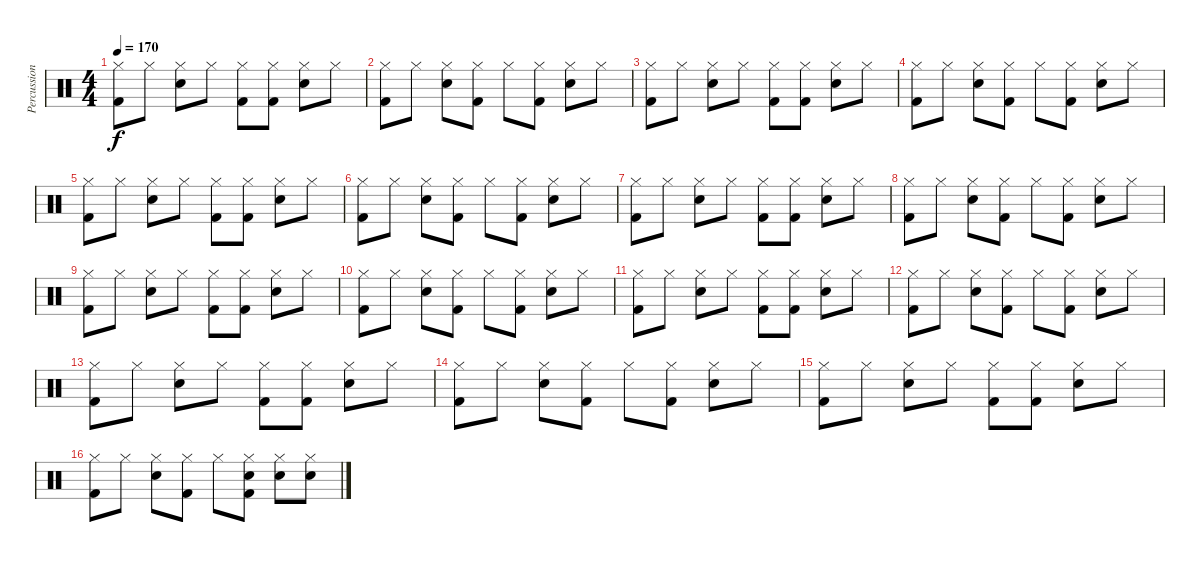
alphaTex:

\track ("Percussion" "Percussion") {instrument percussion}
\staff {score}
\articulation defaults
\ts (4 4)
\tempo 170
\clef neutral
\ks c
("Hi-Hat (closed)" "Kick (hit) 2").8{dy f} "Hi-Hat (closed)".8 ("Hi-Hat (closed)" "Electric Snare (hit)").8 "Hi-Hat (closed)".8 ("Hi-Hat (closed)" "Kick (hit) 2").8 ("Hi-Hat (closed)" "Kick (hit) 2").8 ("Hi-Hat (closed)" "Electric Snare (hit)").8 "Hi-Hat (closed)".8 |
("Hi-Hat (closed)" "Kick (hit) 2").8 "Hi-Hat (closed)".8 ("Hi-Hat (closed)" "Electric Snare (hit)").8 ("Hi-Hat (closed)" "Kick (hit) 2").8 "Hi-Hat (closed)".8 ("Hi-Hat (closed)" "Kick (hit) 2").8 ("Hi-Hat (closed)" "Electric Snare (hit)").8 "Hi-Hat (closed)".8 |
("Hi-Hat (closed)" "Kick (hit) 2").8 "Hi-Hat (closed)".8 ("Hi-Hat (closed)" "Electric Snare (hit)").8 "Hi-Hat (closed)".8 ("Hi-Hat (closed)" "Kick (hit) 2").8 ("Hi-Hat (closed)" "Kick (hit) 2").8 ("Hi-Hat (closed)" "Electric Snare (hit)").8 "Hi-Hat (closed)".8 |
("Hi-Hat (closed)" "Kick (hit) 2").8 "Hi-Hat (closed)".8 ("Hi-Hat (closed)" "Electric Snare (hit)").8 ("Hi-Hat (closed)" "Kick (hit) 2").8 "Hi-Hat (closed)".8 ("Hi-Hat (closed)" "Kick (hit) 2").8 ("Hi-Hat (closed)" "Electric Snare (hit)").8 "Hi-Hat (closed)".8 |
("Hi-Hat (closed)" "Kick (hit) 2").8 "Hi-Hat (closed)".8 ("Hi-Hat (closed)" "Electric Snare (hit)").8 "Hi-Hat (closed)".8 ("Hi-Hat (closed)" "Kick (hit) 2").8 ("Hi-Hat (closed)" "Kick (hit) 2").8 ("Hi-Hat (closed)" "Electric Snare (hit)").8 "Hi-Hat (closed)".8 |
("Hi-Hat (closed)" "Kick (hit) 2").8 "Hi-Hat (closed)".8 ("Hi-Hat (closed)" "Electric Snare (hit)").8 ("Hi-Hat (closed)" "Kick (hit) 2").8 "Hi-Hat (closed)".8 ("Hi-Hat (closed)" "Kick (hit) 2").8 ("Hi-Hat (closed)" "Electric Snare (hit)").8 "Hi-Hat (closed)".8 |
("Hi-Hat (closed)" "Kick (hit) 2").8 "Hi-Hat (closed)".8 ("Hi-Hat (closed)" "Electric Snare (hit)").8 "Hi-Hat (closed)".8 ("Hi-Hat (closed)" "Kick (hit) 2").8 ("Hi-Hat (closed)" "Kick (hit) 2").8 ("Hi-Hat (closed)" "Electric Snare (hit)").8 "Hi-Hat (closed)".8 |
("Hi-Hat (closed)" "Kick (hit) 2").8 "Hi-Hat (closed)".8 ("Hi-Hat (closed)" "Electric Snare (hit)").8 ("Hi-Hat (closed)" "Kick (hit) 2").8 "Hi-Hat (closed)".8 ("Hi-Hat (closed)" "Kick (hit) 2").8 ("Hi-Hat (closed)" "Electric Snare (hit)").8 "Hi-Hat (closed)".8 |
("Hi-Hat (closed)" "Kick (hit) 2").8 "Hi-Hat (closed)".8 ("Hi-Hat (closed)" "Electric Snare (hit)").8 "Hi-Hat (closed)".8 ("Hi-Hat (closed)" "Kick (hit) 2").8 ("Hi-Hat (closed)" "Kick (hit) 2").8 ("Hi-Hat (closed)" "Electric Snare (hit)").8 "Hi-Hat (closed)".8 |
("Hi-Hat (closed)" "Kick (hit) 2").8 "Hi-Hat (closed)".8 ("Hi-Hat (closed)" "Electric Snare (hit)").8 ("Hi-Hat (closed)" "Kick (hit) 2").8 "Hi-Hat (closed)".8 ("Hi-Hat (closed)" "Kick (hit) 2").8 ("Hi-Hat (closed)" "Electric Snare (hit)").8 "Hi-Hat (closed)".8 |
("Hi-Hat (closed)" "Kick (hit) 2").8 "Hi-Hat (closed)".8 ("Hi-Hat (closed)" "Electric Snare (hit)").8 "Hi-Hat (closed)".8 ("Hi-Hat (closed)" "Kick (hit) 2").8 ("Hi-Hat (closed)" "Kick (hit) 2").8 ("Hi-Hat (closed)" "Electric Snare (hit)").8 "Hi-Hat (closed)".8 |
("Hi-Hat (closed)" "Kick (hit) 2").8 "Hi-Hat (closed)".8 ("Hi-Hat (closed)" "Electric Snare (hit)").8 ("Hi-Hat (closed)" "Kick (hit) 2").8 "Hi-Hat (closed)".8 ("Hi-Hat (closed)" "Kick (hit) 2").8 ("Hi-Hat (closed)" "Electric Snare (hit)").8 "Hi-Hat (closed)".8 |
("Hi-Hat (closed)" "Kick (hit) 2").8 "Hi-Hat (closed)".8 ("Hi-Hat (closed)" "Electric Snare (hit)").8 "Hi-Hat (closed)".8 ("Hi-Hat (closed)" "Kick (hit) 2").8 ("Hi-Hat (closed)" "Kick (hit) 2").8 ("Hi-Hat (closed)" "Electric Snare (hit)").8 "Hi-Hat (closed)".8 |
("Hi-Hat (closed)" "Kick (hit) 2").8 "Hi-Hat (closed)".8 ("Hi-Hat (closed)" "Electric Snare (hit)").8 ("Hi-Hat (closed)" "Kick (hit) 2").8 "Hi-Hat (closed)".8 ("Hi-Hat (closed)" "Kick (hit) 2").8 ("Hi-Hat (closed)" "Electric Snare (hit)").8 "Hi-Hat (closed)".8 |
("Hi-Hat (closed)" "Kick (hit) 2").8 "Hi-Hat (closed)".8 ("Hi-Hat (closed)" "Electric Snare (hit)").8 "Hi-Hat (closed)".8 ("Hi-Hat (closed)" "Kick (hit) 2").8 ("Hi-Hat (closed)" "Kick (hit) 2").8 ("Hi-Hat (closed)" "Electric Snare (hit)").8 "Hi-Hat (closed)".8 |
("Hi-Hat (closed)" "Kick (hit) 2").8 "Hi-Hat (closed)".8 ("Hi-Hat (closed)" "Electric Snare (hit)").8 ("Hi-Hat (closed)" "Kick (hit) 2").8 "Hi-Hat (closed)".8 ("Hi-Hat (closed)" "Electric Snare (hit)" "Kick (hit) 2").8 ("Hi-Hat (closed)" "Electric Snare (hit)").8 ("Hi-Hat (closed)" "Electric Snare (hit)").8
